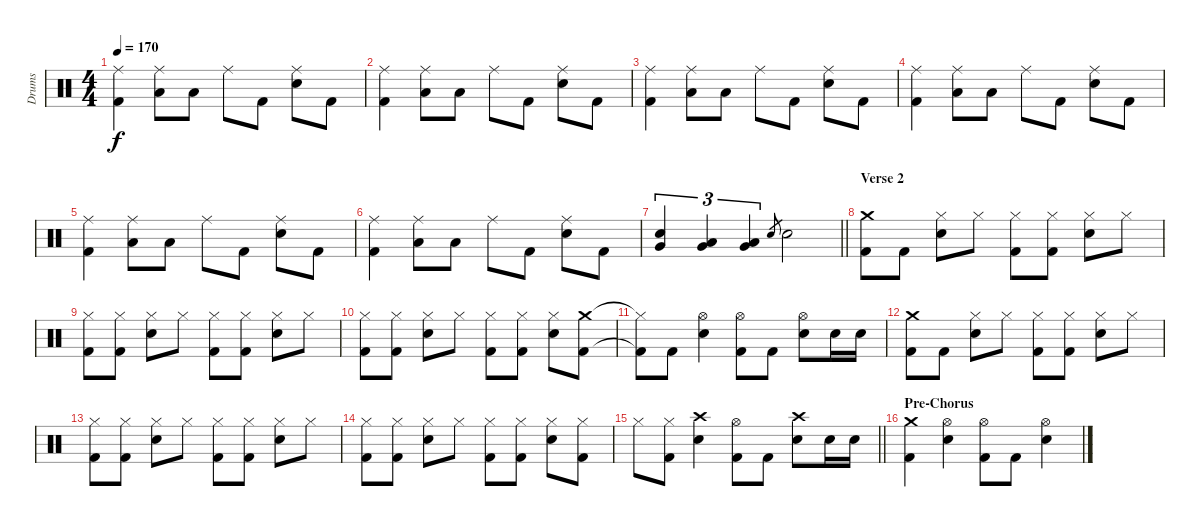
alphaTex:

\track ("Drums" "Drums") {instrument percussion}
\staff {score}
\articulation defaults
\ts (4 4)
\tempo 170
\clef neutral
\ks c
("Ride (middle)" "Kick (hit) 2").4{dy f} ("Ride (middle)" "Low Tom (hit)").8 "Low Tom (hit)".8 "Ride (middle)".8 "Kick (hit) 2".8 ("Ride (middle)" "Electric Snare (hit)").8 "Kick (hit) 2".8 |
("Ride (middle)" "Kick (hit) 2").4 ("Ride (middle)" "Low Tom (hit)").8 "Low Tom (hit)".8 "Ride (middle)".8 "Kick (hit) 2".8 ("Ride (middle)" "Electric Snare (hit)").8 "Kick (hit) 2".8 |
("Ride (middle)" "Kick (hit) 2").4 ("Ride (middle)" "Low Tom (hit)").8 "Low Tom (hit)".8 "Ride (middle)".8 "Kick (hit) 2".8 ("Ride (middle)" "Electric Snare (hit)").8 "Kick (hit) 2".8 |
("Ride (middle)" "Kick (hit) 2").4 ("Ride (middle)" "Low Floor Tom (hit)").8 "Low Floor Tom (hit)".8 "Ride (middle)".8 "Kick (hit) 2".8 ("Ride (middle)" "Electric Snare (hit)").8 "Kick (hit) 2".8 |
("Ride (middle)" "Kick (hit) 2").4 ("Ride (middle)" "Low Tom (hit)").8 "Low Tom (hit)".8 "Ride (middle)".8 "Kick (hit) 2".8 ("Ride (middle)" "Electric Snare (hit)").8 "Kick (hit) 2".8 |
("Ride (middle)" "Kick (hit) 2").4 ("Ride (middle)" "Low Floor Tom (hit)").8 "Low Floor Tom (hit)".8 "Ride (middle)".8 "Kick (hit) 2".8 ("Ride (middle)" "Electric Snare (hit)").8 "Kick (hit) 2".8 |
\barLineRight lightlight
("Electric Snare (hit)" "Very Low Tom (hit)").4{tu (3 2)} ("Low Tom (hit)" "Very Low Tom (hit)").4{tu (3 2)} ("Low Floor Tom (hit)" "Very Low Tom (hit)").4{tu (3 2)} "Electric Snare (hit)".8{gr} "Electric Snare (hit)".2 |
\section ("" "Verse 2")
("Crash medium (hit)" "Kick (hit) 2").8 "Kick (hit) 2".8 ("Hi-Hat (closed)" "Electric Snare (hit)").8 "Hi-Hat (closed)".8 ("Hi-Hat (closed)" "Kick (hit) 2").8 ("Hi-Hat (closed)" "Kick (hit) 2").8 ("Hi-Hat (closed)" "Electric Snare (hit)").8 "Hi-Hat (closed)".8 |
("Hi-Hat (closed)" "Kick (hit) 2").8 ("Hi-Hat (closed)" "Kick (hit) 2").8 ("Hi-Hat (closed)" "Electric Snare (hit)").8 "Hi-Hat (closed)".8 ("Hi-Hat (closed)" "Kick (hit) 2").8 ("Hi-Hat (closed)" "Kick (hit) 2").8 ("Hi-Hat (closed)" "Electric Snare (hit)").8 "Hi-Hat (closed)".8 |
("Hi-Hat (closed)" "Kick (hit) 2").8 ("Hi-Hat (closed)" "Kick (hit) 2").8 ("Hi-Hat (closed)" "Electric Snare (hit)").8 "Hi-Hat (closed)".8 ("Hi-Hat (closed)" "Kick (hit) 2").8 ("Hi-Hat (closed)" "Kick (hit) 2").8 ("Hi-Hat (closed)" "Electric Snare (hit)").8 ("Crash medium (hit)" "Kick (hit) 2").8 |
("Hi-Hat (closed)"{t} "Kick (hit) 2"{t}).8 "Kick (hit) 2".8 ("Hi-Hat (open)" "Electric Snare (hit)").4 ("Hi-Hat (open)" "Kick (hit) 2").8 "Kick (hit) 2".8 ("Hi-Hat (open)" "Electric Snare (hit)").8 "Electric Snare (hit)".16 "Electric Snare (hit)".16 |
("Crash medium (hit)" "Kick (hit) 2").8 "Kick (hit) 2".8 ("Hi-Hat (closed)" "Electric Snare (hit)").8 "Hi-Hat (closed)".8 ("Hi-Hat (closed)" "Kick (hit) 2").8 ("Hi-Hat (closed)" "Kick (hit) 2").8 ("Hi-Hat (closed)" "Electric Snare (hit)").8 "Hi-Hat (closed)".8 |
("Hi-Hat (closed)" "Kick (hit) 2").8 ("Hi-Hat (closed)" "Kick (hit) 2").8 ("Hi-Hat (closed)" "Electric Snare (hit)").8 "Hi-Hat (closed)".8 ("Hi-Hat (closed)" "Kick (hit) 2").8 ("Hi-Hat (closed)" "Kick (hit) 2").8 ("Hi-Hat (closed)" "Electric Snare (hit)").8 "Hi-Hat (closed)".8 |
("Hi-Hat (closed)" "Kick (hit) 2").8 ("Hi-Hat (closed)" "Kick (hit) 2").8 ("Hi-Hat (closed)" "Electric Snare (hit)").8 "Hi-Hat (closed)".8 ("Hi-Hat (closed)" "Kick (hit) 2").8 ("Hi-Hat (closed)" "Kick (hit) 2").8 ("Hi-Hat (closed)" "Electric Snare (hit)").8 ("Hi-Hat (closed)" "Kick (hit) 2").8 |
\barLineRight lightlight "Hi-Hat (closed)".8
("Hi-Hat (closed)" "Kick (hit) 2").8 ("Crash high (hit)" "Electric Snare (hit)").4 ("Hi-Hat (open)" "Kick (hit) 2").8 "Kick (hit) 2".8 ("Crash high (hit)" "Electric Snare (hit)").8 "Electric Snare (hit)".16 "Electric Snare (hit)".16 |
\section ("" "Pre-Chorus")
("Crash medium (hit)" "Kick (hit) 2").4 ("Hi-Hat (open)" "Electric Snare (hit)").4 ("Hi-Hat (open)" "Kick (hit) 2").8 "Kick (hit) 2".8 ("Hi-Hat (open)" "Electric Snare (hit)").4
